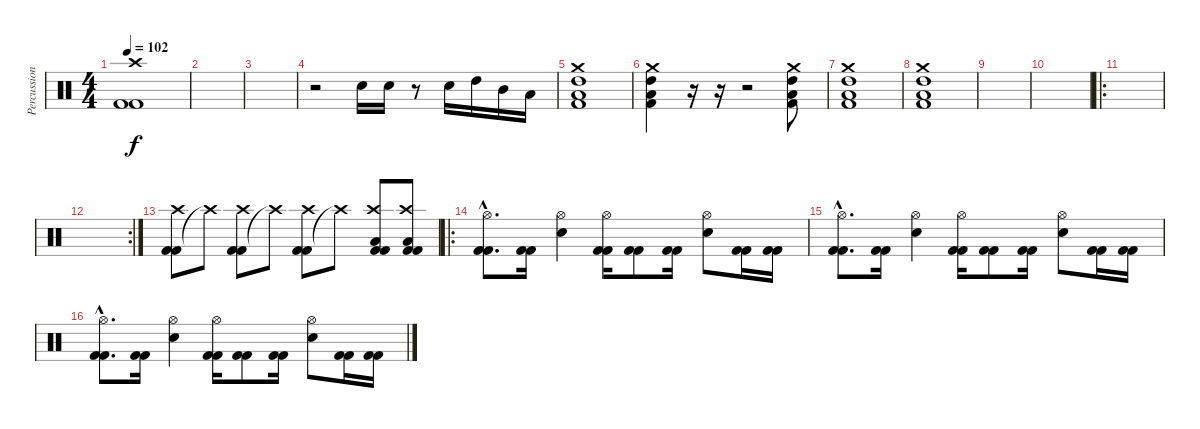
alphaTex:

\track ("Percussion" "Percussion") {instrument percussion}
\staff {score}
\articulation defaults
\ts (4 4)
\tempo 102
\clef neutral
\ks c
("Kick (hit) 2" "Kick (hit) 2" "Crash high (hit)").1{dy f} |
|
|
r.2 "Snare (hit) 2".16 "Snare (hit) 2".16 r.8 "Snare (hit) 2".16 "High Tom (hit)".16 "Mid Tom (hit)".16 "Low Tom (hit)".16 |
("High Tom (hit)" "Low Tom (hit)" "Crash medium (hit)" "Kick (hit) 2").1 |
("High Tom (hit)" "Low Tom (hit)" "Crash medium (hit)" "Kick (hit) 2").4 r.16 r.16 r.2 ("High Tom (hit)" "Low Tom (hit)" "Crash medium (hit)" "Kick (hit) 2").8 |
("High Tom (hit)" "Low Tom (hit)" "Crash medium (hit)" "Kick (hit) 2").1 |
("High Tom (hit)" "Low Tom (hit)" "Crash medium (hit)" "Kick (hit) 2").1 |
|
|
\ro
|
\rc 2
|
("Kick (hit) 2" "Crash high (hit)" "Kick (hit) 2").8 "Crash high (hit)"{t}.8 ("Kick (hit) 2" "Crash high (hit)" "Kick (hit) 2").8 "Crash high (hit)"{t}.8 ("Kick (hit) 2" "Crash high (hit)" "Kick (hit) 2").8 "Crash high (hit)"{t}.8 ("Kick (hit) 2" "Crash high (hit)" "Low Tom (hit)" "Kick (hit) 2").8 ("Kick (hit) 2" "Crash high (hit)" "Low Tom (hit)" "Kick (hit) 2").8 |
\ro
("Kick (hit) 2"{hac} "Hi-Hat (open)"{hac} "Kick (hit) 2"{hac}).8{d} ("Kick (hit) 2" "Kick (hit) 2").16 ("Snare (hit) 2" "Hi-Hat (open)").4 ("Kick (hit) 2" "Hi-Hat (open)" "Kick (hit) 2").16 ("Kick (hit) 2" "Kick (hit) 2").8 ("Kick (hit) 2" "Kick (hit) 2").16 ("Snare (hit) 2" "Hi-Hat (open)").8 ("Kick (hit) 2" "Kick (hit) 2").16 ("Kick (hit) 2" "Kick (hit) 2").16 |
("Kick (hit) 2"{hac} "Hi-Hat (open)"{hac} "Kick (hit) 2"{hac}).8{d} ("Kick (hit) 2" "Kick (hit) 2").16 ("Snare (hit) 2" "Hi-Hat (open)").4 ("Kick (hit) 2" "Hi-Hat (open)" "Kick (hit) 2").16 ("Kick (hit) 2" "Kick (hit) 2").8 ("Kick (hit) 2" "Kick (hit) 2").16 ("Snare (hit) 2" "Hi-Hat (open)").8 ("Kick (hit) 2" "Kick (hit) 2").16 ("Kick (hit) 2" "Kick (hit) 2").16 |
("Kick (hit) 2"{hac} "Hi-Hat (open)"{hac} "Kick (hit) 2"{hac}).8{d} ("Kick (hit) 2" "Kick (hit) 2").16 ("Snare (hit) 2" "Hi-Hat (open)").4 ("Kick (hit) 2" "Hi-Hat (open)" "Kick (hit) 2").16 ("Kick (hit) 2" "Kick (hit) 2").8 ("Kick (hit) 2" "Kick (hit) 2").16 ("Snare (hit) 2" "Hi-Hat (open)").8 ("Kick (hit) 2" "Kick (hit) 2").16 ("Kick (hit) 2" "Kick (hit) 2").16
